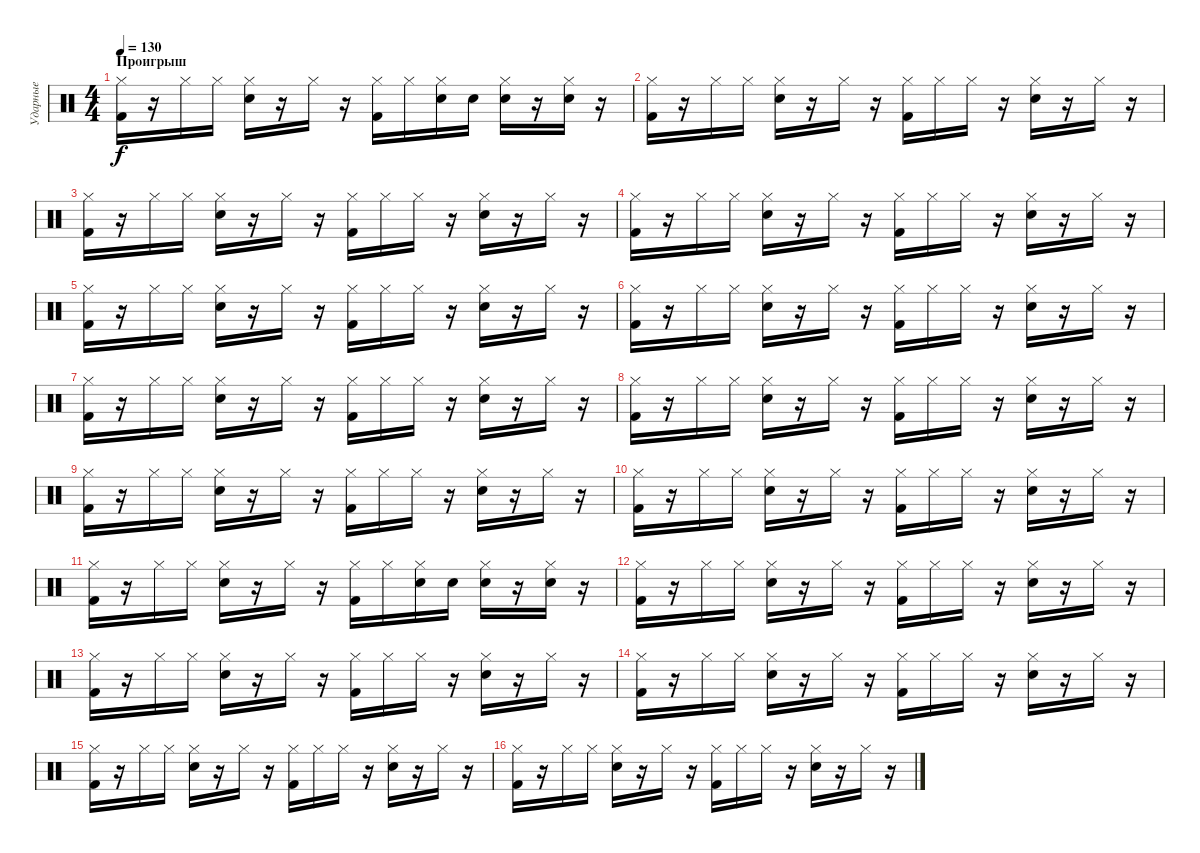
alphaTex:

\track ("Ударные" "Ударные") {instrument percussion}
\staff {score}
\articulation defaults
\ts (4 4)
\section ("" "Проигрыш")
\tempo 130
\clef neutral
\ks c
("Kick (hit) 2" "Hi-Hat (closed)").16{dy f} r.16 "Hi-Hat (closed)".16 "Hi-Hat (closed)".16 ("Snare (hit) 2" "Hi-Hat (closed)").16 r.16 "Hi-Hat (closed)".16 r.16 ("Kick (hit) 2" "Hi-Hat (closed)").16 "Hi-Hat (closed)".16 ("Snare (hit) 2" "Hi-Hat (closed)").16 "Snare (hit) 2".16 ("Snare (hit) 2" "Hi-Hat (closed)").16 r.16 ("Snare (hit) 2" "Hi-Hat (closed)").16 r.16 |
("Kick (hit) 2" "Hi-Hat (closed)").16 r.16 "Hi-Hat (closed)".16 "Hi-Hat (closed)".16 ("Snare (hit) 2" "Hi-Hat (closed)").16 r.16 "Hi-Hat (closed)".16 r.16 ("Kick (hit) 2" "Hi-Hat (closed)").16 "Hi-Hat (closed)".16 "Hi-Hat (closed)".16 r.16 ("Snare (hit) 2" "Hi-Hat (closed)").16 r.16 "Hi-Hat (closed)".16 r.16 |
("Kick (hit) 2" "Hi-Hat (closed)").16 r.16 "Hi-Hat (closed)".16 "Hi-Hat (closed)".16 ("Snare (hit) 2" "Hi-Hat (closed)").16 r.16 "Hi-Hat (closed)".16 r.16 ("Kick (hit) 2" "Hi-Hat (closed)").16 "Hi-Hat (closed)".16 "Hi-Hat (closed)".16 r.16 ("Snare (hit) 2" "Hi-Hat (closed)").16 r.16 "Hi-Hat (closed)".16 r.16 |
("Kick (hit) 2" "Hi-Hat (closed)").16 r.16 "Hi-Hat (closed)".16 "Hi-Hat (closed)".16 ("Snare (hit) 2" "Hi-Hat (closed)").16 r.16 "Hi-Hat (closed)".16 r.16 ("Kick (hit) 2" "Hi-Hat (closed)").16 "Hi-Hat (closed)".16 "Hi-Hat (closed)".16 r.16 ("Snare (hit) 2" "Hi-Hat (closed)").16 r.16 "Hi-Hat (closed)".16 r.16 |
("Kick (hit) 2" "Hi-Hat (closed)").16 r.16 "Hi-Hat (closed)".16 "Hi-Hat (closed)".16 ("Snare (hit) 2" "Hi-Hat (closed)").16 r.16 "Hi-Hat (closed)".16 r.16 ("Kick (hit) 2" "Hi-Hat (closed)").16 "Hi-Hat (closed)".16 "Hi-Hat (closed)".16 r.16 ("Snare (hit) 2" "Hi-Hat (closed)").16 r.16 "Hi-Hat (closed)".16 r.16 |
("Kick (hit) 2" "Hi-Hat (closed)").16 r.16 "Hi-Hat (closed)".16 "Hi-Hat (closed)".16 ("Snare (hit) 2" "Hi-Hat (closed)").16 r.16 "Hi-Hat (closed)".16 r.16 ("Kick (hit) 2" "Hi-Hat (closed)").16 "Hi-Hat (closed)".16 "Hi-Hat (closed)".16 r.16 ("Snare (hit) 2" "Hi-Hat (closed)").16 r.16 "Hi-Hat (closed)".16 r.16 |
("Kick (hit) 2" "Hi-Hat (closed)").16 r.16 "Hi-Hat (closed)".16 "Hi-Hat (closed)".16 ("Snare (hit) 2" "Hi-Hat (closed)").16 r.16 "Hi-Hat (closed)".16 r.16 ("Kick (hit) 2" "Hi-Hat (closed)").16 "Hi-Hat (closed)".16 "Hi-Hat (closed)".16 r.16 ("Snare (hit) 2" "Hi-Hat (closed)").16 r.16 "Hi-Hat (closed)".16 r.16 |
("Kick (hit) 2" "Hi-Hat (closed)").16 r.16 "Hi-Hat (closed)".16 "Hi-Hat (closed)".16 ("Snare (hit) 2" "Hi-Hat (closed)").16 r.16 "Hi-Hat (closed)".16 r.16 ("Kick (hit) 2" "Hi-Hat (closed)").16 "Hi-Hat (closed)".16 "Hi-Hat (closed)".16 r.16 ("Snare (hit) 2" "Hi-Hat (closed)").16 r.16 "Hi-Hat (closed)".16 r.16 |
("Kick (hit) 2" "Hi-Hat (closed)").16 r.16 "Hi-Hat (closed)".16 "Hi-Hat (closed)".16 ("Snare (hit) 2" "Hi-Hat (closed)").16 r.16 "Hi-Hat (closed)".16 r.16 ("Kick (hit) 2" "Hi-Hat (closed)").16 "Hi-Hat (closed)".16 "Hi-Hat (closed)".16 r.16 ("Snare (hit) 2" "Hi-Hat (closed)").16 r.16 "Hi-Hat (closed)".16 r.16 |
("Kick (hit) 2" "Hi-Hat (closed)").16 r.16 "Hi-Hat (closed)".16 "Hi-Hat (closed)".16 ("Snare (hit) 2" "Hi-Hat (closed)").16 r.16 "Hi-Hat (closed)".16 r.16 ("Kick (hit) 2" "Hi-Hat (closed)").16 "Hi-Hat (closed)".16 "Hi-Hat (closed)".16 r.16 ("Snare (hit) 2" "Hi-Hat (closed)").16 r.16 "Hi-Hat (closed)".16 r.16 |
("Kick (hit) 2" "Hi-Hat (closed)").16 r.16 "Hi-Hat (closed)".16 "Hi-Hat (closed)".16 ("Snare (hit) 2" "Hi-Hat (closed)").16 r.16 "Hi-Hat (closed)".16 r.16 ("Kick (hit) 2" "Hi-Hat (closed)").16 "Hi-Hat (closed)".16 ("Snare (hit) 2" "Hi-Hat (closed)").16 "Snare (hit) 2".16 ("Snare (hit) 2" "Hi-Hat (closed)").16 r.16 ("Snare (hit) 2" "Hi-Hat (closed)").16 r.16 |
("Kick (hit) 2" "Hi-Hat (closed)").16 r.16 "Hi-Hat (closed)".16 "Hi-Hat (closed)".16 ("Snare (hit) 2" "Hi-Hat (closed)").16 r.16 "Hi-Hat (closed)".16 r.16 ("Kick (hit) 2" "Hi-Hat (closed)").16 "Hi-Hat (closed)".16 "Hi-Hat (closed)".16 r.16 ("Snare (hit) 2" "Hi-Hat (closed)").16 r.16 "Hi-Hat (closed)".16 r.16 |
("Kick (hit) 2" "Hi-Hat (closed)").16 r.16 "Hi-Hat (closed)".16 "Hi-Hat (closed)".16 ("Snare (hit) 2" "Hi-Hat (closed)").16 r.16 "Hi-Hat (closed)".16 r.16 ("Kick (hit) 2" "Hi-Hat (closed)").16 "Hi-Hat (closed)".16 "Hi-Hat (closed)".16 r.16 ("Snare (hit) 2" "Hi-Hat (closed)").16 r.16 "Hi-Hat (closed)".16 r.16 |
("Kick (hit) 2" "Hi-Hat (closed)").16 r.16 "Hi-Hat (closed)".16 "Hi-Hat (closed)".16 ("Snare (hit) 2" "Hi-Hat (closed)").16 r.16 "Hi-Hat (closed)".16 r.16 ("Kick (hit) 2" "Hi-Hat (closed)").16 "Hi-Hat (closed)".16 "Hi-Hat (closed)".16 r.16 ("Snare (hit) 2" "Hi-Hat (closed)").16 r.16 "Hi-Hat (closed)".16 r.16 |
("Kick (hit) 2" "Hi-Hat (closed)").16 r.16 "Hi-Hat (closed)".16 "Hi-Hat (closed)".16 ("Snare (hit) 2" "Hi-Hat (closed)").16 r.16 "Hi-Hat (closed)".16 r.16 ("Kick (hit) 2" "Hi-Hat (closed)").16 "Hi-Hat (closed)".16 "Hi-Hat (closed)".16 r.16 ("Snare (hit) 2" "Hi-Hat (closed)").16 r.16 "Hi-Hat (closed)".16 r.16 |
("Kick (hit) 2" "Hi-Hat (closed)").16 r.16 "Hi-Hat (closed)".16 "Hi-Hat (closed)".16 ("Snare (hit) 2" "Hi-Hat (closed)").16 r.16 "Hi-Hat (closed)".16 r.16 ("Kick (hit) 2" "Hi-Hat (closed)").16 "Hi-Hat (closed)".16 "Hi-Hat (closed)".16 r.16 ("Snare (hit) 2" "Hi-Hat (closed)").16 r.16 "Hi-Hat (closed)".16 r.16
